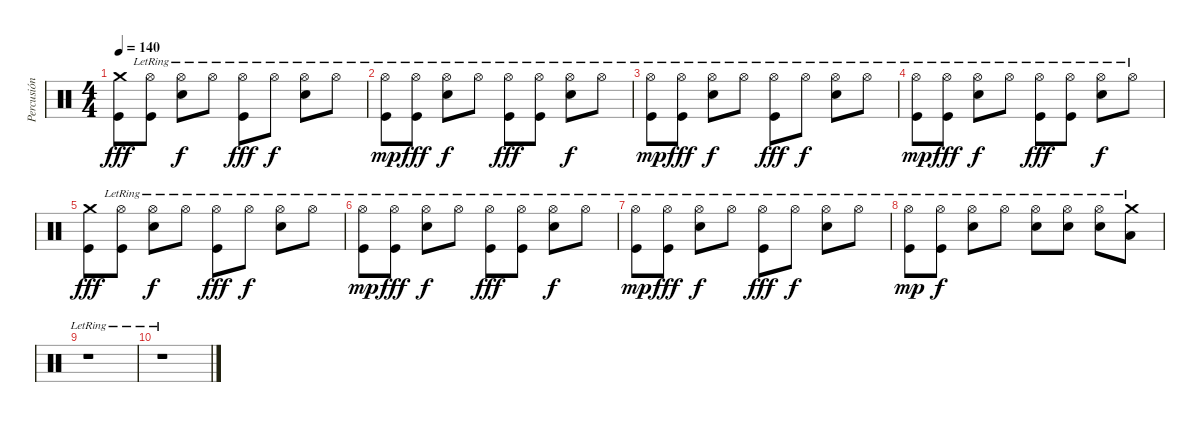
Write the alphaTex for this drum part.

\track ("Percusión" "Percusión") {instrument percussion}
\staff {score}
\articulation defaults
\ts (4 4)
\tempo 140
\clef neutral
\ks c
("Kick (hit)" "Crash medium (hit)").8{dy fff} ("Kick (hit)" "Hi-Hat (open)"{lr}).8 ("Snare (hit) 2" "Hi-Hat (open)"{lr}).8{dy f} "Hi-Hat (open)"{lr}.8 ("Kick (hit)" "Hi-Hat (open)"{lr}).8{dy fff} "Hi-Hat (open)"{lr}.8{dy f} ("Snare (hit) 2" "Hi-Hat (open)"{lr}).8 "Hi-Hat (open)"{lr}.8 |
("Kick (hit)" "Hi-Hat (open)"{lr}).8{dy mp} ("Kick (hit)" "Hi-Hat (open)"{lr}).8{dy fff} ("Snare (hit) 2" "Hi-Hat (open)"{lr}).8{dy f} "Hi-Hat (open)"{lr}.8 ("Kick (hit)" "Hi-Hat (open)"{lr}).8{dy fff} ("Kick (hit)" "Hi-Hat (open)"{lr}).8 ("Snare (hit) 2" "Hi-Hat (open)"{lr}).8{dy f} "Hi-Hat (open)"{lr}.8 |
("Kick (hit)" "Hi-Hat (open)"{lr}).8{dy mp} ("Kick (hit)" "Hi-Hat (open)"{lr}).8{dy fff} ("Snare (hit) 2" "Hi-Hat (open)"{lr}).8{dy f} "Hi-Hat (open)"{lr}.8 ("Kick (hit)" "Hi-Hat (open)"{lr}).8{dy fff} "Hi-Hat (open)"{lr}.8{dy f} ("Snare (hit) 2" "Hi-Hat (open)"{lr}).8 "Hi-Hat (open)"{lr}.8 |
("Kick (hit)" "Hi-Hat (open)"{lr}).8{dy mp} ("Kick (hit)" "Hi-Hat (open)"{lr}).8{dy fff} ("Snare (hit) 2" "Hi-Hat (open)"{lr}).8{dy f} "Hi-Hat (open)"{lr}.8 ("Kick (hit)" "Hi-Hat (open)"{lr}).8{dy fff} ("Kick (hit)" "Hi-Hat (open)"{lr}).8 ("Snare (hit) 2" "Hi-Hat (open)"{lr}).8{dy f} "Hi-Hat (open)"{lr}.8 |
("Kick (hit)" "Crash medium (hit)").8{dy fff} ("Kick (hit)" "Hi-Hat (open)"{lr}).8 ("Snare (hit) 2" "Hi-Hat (open)"{lr}).8{dy f} "Hi-Hat (open)"{lr}.8 ("Kick (hit)" "Hi-Hat (open)"{lr}).8{dy fff} "Hi-Hat (open)"{lr}.8{dy f} ("Snare (hit) 2" "Hi-Hat (open)"{lr}).8 "Hi-Hat (open)"{lr}.8 |
("Kick (hit)" "Hi-Hat (open)"{lr}).8{dy mp} ("Kick (hit)" "Hi-Hat (open)"{lr}).8{dy fff} ("Snare (hit) 2" "Hi-Hat (open)"{lr}).8{dy f} "Hi-Hat (open)"{lr}.8 ("Kick (hit)" "Hi-Hat (open)"{lr}).8{dy fff} ("Kick (hit)" "Hi-Hat (open)"{lr}).8 ("Snare (hit) 2" "Hi-Hat (open)"{lr}).8{dy f} "Hi-Hat (open)"{lr}.8 |
("Kick (hit)" "Hi-Hat (open)"{lr}).8{dy mp} ("Kick (hit)" "Hi-Hat (open)"{lr}).8{dy fff} ("Snare (hit) 2" "Hi-Hat (open)"{lr}).8{dy f} "Hi-Hat (open)"{lr}.8 ("Kick (hit)" "Hi-Hat (open)"{lr}).8{dy fff} "Hi-Hat (open)"{lr}.8{dy f} ("Snare (hit) 2" "Hi-Hat (open)"{lr}).8 "Hi-Hat (open)"{lr}.8 |
("Kick (hit)" "Hi-Hat (open)"{lr}).8{dy mp} ("Kick (hit)" "Hi-Hat (open)"{lr}).8{dy f} ("Snare (hit) 2" "Hi-Hat (open)"{lr}).8 "Hi-Hat (open)"{lr}.8 ("Snare (hit) 2" "Hi-Hat (open)"{lr}).8 ("Snare (hit) 2" "Hi-Hat (open)"{lr}).8 ("Snare (hit) 2" "Hi-Hat (open)"{lr}).8 ("Low Tom (hit)" "Crash medium (hit)"{lr}).8 |
r.1 |
r.1
